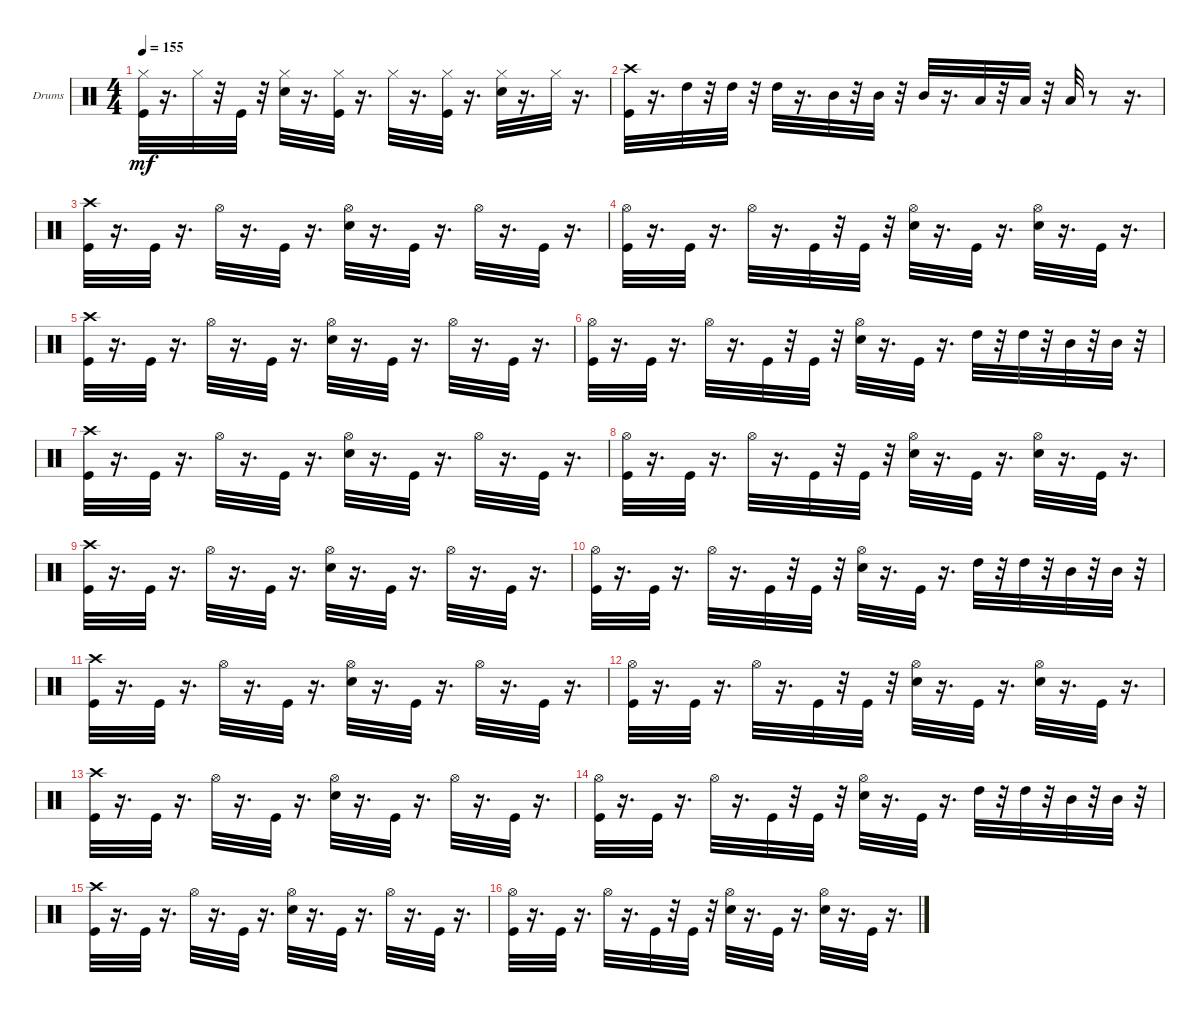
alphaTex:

\bracketExtendMode groupsimilarinstruments
\firstSystemTrackNameOrientation horizontal
\otherSystemsTrackNameOrientation horizontal
\track ("" "Drums") {instrument percussion}
\staff {score}
\articulation defaults
\ts (4 4)
\tempo 155
\clef neutral
\ks c
("Hi-Hat (closed)" "Kick (hit)").32{dy mf} r.16{d} "Hi-Hat (closed)".32 r.32 "Kick (hit)".32 r.32 ("Hi-Hat (closed)" "Snare (hit) 2").32 r.16{d} ("Kick (hit)" "Hi-Hat (closed)").32 r.16{d} "Hi-Hat (closed)".32 r.16{d} ("Kick (hit)" "Hi-Hat (closed)").32 r.16{d} ("Hi-Hat (closed)" "Snare (hit) 2").32 r.16{d} "Hi-Hat (closed)".32 r.16{d} |
("Crash high (hit)" "Kick (hit)").32 r.16{d} "High Tom (hit)".32 r.32 "High Tom (hit)".32 r.32 "High Tom (hit)".32 r.16{d} "Mid Tom (hit)".32 r.32 "Mid Tom (hit)".32 r.32 "Mid Tom (hit)".32 r.16{d} "Low Tom (hit)".32 r.32 "Low Tom (hit)".32 r.32 "Low Tom (hit)".32 r.8 r.16{d} |
("Crash high (hit)" "Kick (hit)").32 r.16{d} "Kick (hit)".32 r.16{d} "Hi-Hat (open)".32 r.16{d} "Kick (hit)".32 r.16{d} ("Snare (hit) 2" "Hi-Hat (open)").32 r.16{d} "Kick (hit)".32 r.16{d} "Hi-Hat (open)".32 r.16{d} "Kick (hit)".32 r.16{d} |
("Hi-Hat (open)" "Kick (hit)").32 r.16{d} "Kick (hit)".32 r.16{d} "Hi-Hat (open)".32 r.16{d} "Kick (hit)".32 r.32 "Kick (hit)".32 r.32 ("Snare (hit) 2" "Hi-Hat (open)").32 r.16{d} "Kick (hit)".32 r.16{d} ("Snare (hit) 2" "Hi-Hat (open)").32 r.16{d} "Kick (hit)".32 r.16{d} |
("Crash high (hit)" "Kick (hit)").32 r.16{d} "Kick (hit)".32 r.16{d} "Hi-Hat (open)".32 r.16{d} "Kick (hit)".32 r.16{d} ("Snare (hit) 2" "Hi-Hat (open)").32 r.16{d} "Kick (hit)".32 r.16{d} "Hi-Hat (open)".32 r.16{d} "Kick (hit)".32 r.16{d} |
("Hi-Hat (open)" "Kick (hit)").32 r.16{d} "Kick (hit)".32 r.16{d} "Hi-Hat (open)".32 r.16{d} "Kick (hit)".32 r.32 "Kick (hit)".32 r.32 ("Snare (hit) 2" "Hi-Hat (open)").32 r.16{d} "Kick (hit)".32 r.16{d} "High Tom (hit)".32 r.32 "High Tom (hit)".32 r.32 "Mid Tom (hit)".32 r.32 "Mid Tom (hit)".32 r.32 |
("Crash high (hit)" "Kick (hit)").32 r.16{d} "Kick (hit)".32 r.16{d} "Hi-Hat (open)".32 r.16{d} "Kick (hit)".32 r.16{d} ("Snare (hit) 2" "Hi-Hat (open)").32 r.16{d} "Kick (hit)".32 r.16{d} "Hi-Hat (open)".32 r.16{d} "Kick (hit)".32 r.16{d} |
("Hi-Hat (open)" "Kick (hit)").32 r.16{d} "Kick (hit)".32 r.16{d} "Hi-Hat (open)".32 r.16{d} "Kick (hit)".32 r.32 "Kick (hit)".32 r.32 ("Snare (hit) 2" "Hi-Hat (open)").32 r.16{d} "Kick (hit)".32 r.16{d} ("Snare (hit) 2" "Hi-Hat (open)").32 r.16{d} "Kick (hit)".32 r.16{d} |
("Crash high (hit)" "Kick (hit)").32 r.16{d} "Kick (hit)".32 r.16{d} "Hi-Hat (open)".32 r.16{d} "Kick (hit)".32 r.16{d} ("Snare (hit) 2" "Hi-Hat (open)").32 r.16{d} "Kick (hit)".32 r.16{d} "Hi-Hat (open)".32 r.16{d} "Kick (hit)".32 r.16{d} |
("Hi-Hat (open)" "Kick (hit)").32 r.16{d} "Kick (hit)".32 r.16{d} "Hi-Hat (open)".32 r.16{d} "Kick (hit)".32 r.32 "Kick (hit)".32 r.32 ("Snare (hit) 2" "Hi-Hat (open)").32 r.16{d} "Kick (hit)".32 r.16{d} "High Tom (hit)".32 r.32 "High Tom (hit)".32 r.32 "Mid Tom (hit)".32 r.32 "Mid Tom (hit)".32 r.32 |
("Crash high (hit)" "Kick (hit)").32 r.16{d} "Kick (hit)".32 r.16{d} "Hi-Hat (open)".32 r.16{d} "Kick (hit)".32 r.16{d} ("Snare (hit) 2" "Hi-Hat (open)").32 r.16{d} "Kick (hit)".32 r.16{d} "Hi-Hat (open)".32 r.16{d} "Kick (hit)".32 r.16{d} |
("Hi-Hat (open)" "Kick (hit)").32 r.16{d} "Kick (hit)".32 r.16{d} "Hi-Hat (open)".32 r.16{d} "Kick (hit)".32 r.32 "Kick (hit)".32 r.32 ("Snare (hit) 2" "Hi-Hat (open)").32 r.16{d} "Kick (hit)".32 r.16{d} ("Snare (hit) 2" "Hi-Hat (open)").32 r.16{d} "Kick (hit)".32 r.16{d} |
("Crash high (hit)" "Kick (hit)").32 r.16{d} "Kick (hit)".32 r.16{d} "Hi-Hat (open)".32 r.16{d} "Kick (hit)".32 r.16{d} ("Snare (hit) 2" "Hi-Hat (open)").32 r.16{d} "Kick (hit)".32 r.16{d} "Hi-Hat (open)".32 r.16{d} "Kick (hit)".32 r.16{d} |
("Hi-Hat (open)" "Kick (hit)").32 r.16{d} "Kick (hit)".32 r.16{d} "Hi-Hat (open)".32 r.16{d} "Kick (hit)".32 r.32 "Kick (hit)".32 r.32 ("Snare (hit) 2" "Hi-Hat (open)").32 r.16{d} "Kick (hit)".32 r.16{d} "High Tom (hit)".32 r.32 "High Tom (hit)".32 r.32 "Mid Tom (hit)".32 r.32 "Mid Tom (hit)".32 r.32 |
("Crash high (hit)" "Kick (hit)").32 r.16{d} "Kick (hit)".32 r.16{d} "Hi-Hat (open)".32 r.16{d} "Kick (hit)".32 r.16{d} ("Snare (hit) 2" "Hi-Hat (open)").32 r.16{d} "Kick (hit)".32 r.16{d} "Hi-Hat (open)".32 r.16{d} "Kick (hit)".32 r.16{d} |
("Hi-Hat (open)" "Kick (hit)").32 r.16{d} "Kick (hit)".32 r.16{d} "Hi-Hat (open)".32 r.16{d} "Kick (hit)".32 r.32 "Kick (hit)".32 r.32 ("Snare (hit) 2" "Hi-Hat (open)").32 r.16{d} "Kick (hit)".32 r.16{d} ("Snare (hit) 2" "Hi-Hat (open)").32 r.16{d} "Kick (hit)".32 r.16{d}
